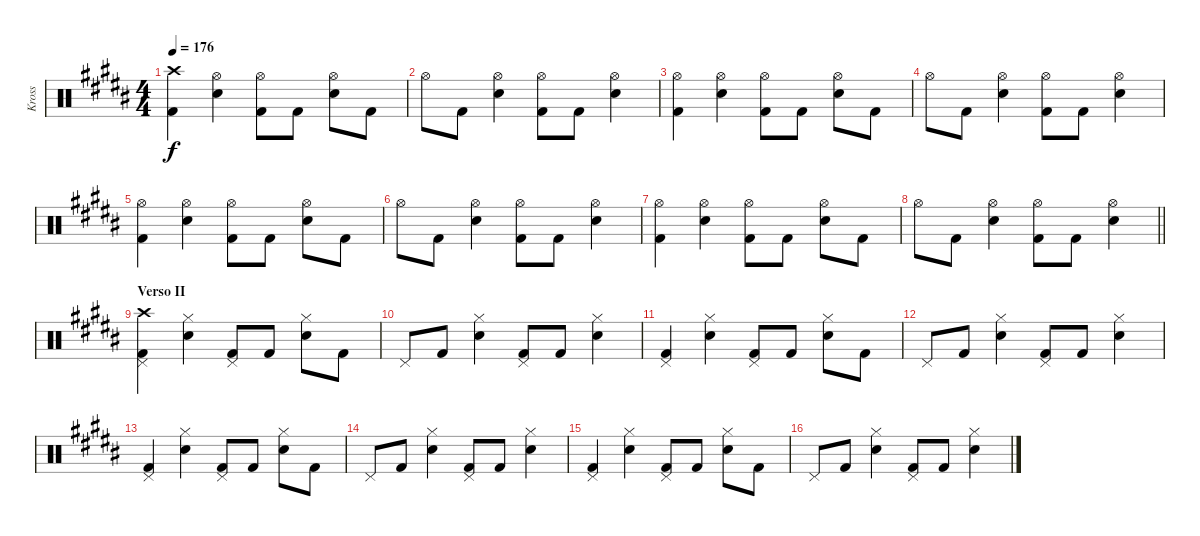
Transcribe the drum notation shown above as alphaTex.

\track ("Kross" "Kross") {instrument percussion}
\staff {score}
\articulation defaults
\ts (4 4)
\tempo 176
\clef neutral
\ks b
("Crash high (hit)" "Kick (hit) 2").4{dy f} ("Hi-Hat (open)" "Electric Snare (hit)").4 ("Hi-Hat (open)" "Kick (hit) 2").8 "Kick (hit) 2".8 ("Hi-Hat (open)" "Electric Snare (hit)").8 "Kick (hit) 2".8 |
"Hi-Hat (open)".8 "Kick (hit) 2".8 ("Hi-Hat (open)" "Electric Snare (hit)").4 ("Hi-Hat (open)" "Kick (hit) 2").8 "Kick (hit) 2".8 ("Hi-Hat (open)" "Electric Snare (hit)").4 |
("Hi-Hat (open)" "Kick (hit) 2").4 ("Hi-Hat (open)" "Electric Snare (hit)").4 ("Hi-Hat (open)" "Kick (hit) 2").8 "Kick (hit) 2".8 ("Hi-Hat (open)" "Electric Snare (hit)").8 "Kick (hit) 2".8 |
"Hi-Hat (open)".8 "Kick (hit) 2".8 ("Hi-Hat (open)" "Electric Snare (hit)").4 ("Hi-Hat (open)" "Kick (hit) 2").8 "Kick (hit) 2".8 ("Hi-Hat (open)" "Electric Snare (hit)").4 |
("Hi-Hat (open)" "Kick (hit) 2").4 ("Hi-Hat (open)" "Electric Snare (hit)").4 ("Hi-Hat (open)" "Kick (hit) 2").8 "Kick (hit) 2".8 ("Hi-Hat (open)" "Electric Snare (hit)").8 "Kick (hit) 2".8 |
"Hi-Hat (open)".8 "Kick (hit) 2".8 ("Hi-Hat (open)" "Electric Snare (hit)").4 ("Hi-Hat (open)" "Kick (hit) 2").8 "Kick (hit) 2".8 ("Hi-Hat (open)" "Electric Snare (hit)").4 |
("Hi-Hat (open)" "Kick (hit) 2").4 ("Hi-Hat (open)" "Electric Snare (hit)").4 ("Hi-Hat (open)" "Kick (hit) 2").8 "Kick (hit) 2".8 ("Hi-Hat (open)" "Electric Snare (hit)").8 "Kick (hit) 2".8 |
\barLineRight lightlight "Hi-Hat (open)".8 "Kick (hit) 2".8
("Hi-Hat (open)" "Electric Snare (hit)").4 ("Hi-Hat (open)" "Kick (hit) 2").8 "Kick (hit) 2".8 ("Hi-Hat (open)" "Electric Snare (hit)").4 |
\section ("" "Verso II")
("Crash high (hit)" "Pedal Hi-Hat (hit)" "Kick (hit) 2").4 ("Hi-Hat (closed)" "Electric Snare (hit)").4 ("Pedal Hi-Hat (hit)" "Kick (hit) 2").8 "Kick (hit) 2".8 ("Hi-Hat (closed)" "Electric Snare (hit)").8 "Kick (hit) 2".8 |
"Pedal Hi-Hat (hit)".8 "Kick (hit) 2".8 ("Hi-Hat (closed)" "Electric Snare (hit)").4 ("Pedal Hi-Hat (hit)" "Kick (hit) 2").8 "Kick (hit) 2".8 ("Hi-Hat (closed)" "Electric Snare (hit)").4 |
("Pedal Hi-Hat (hit)" "Kick (hit) 2").4 ("Hi-Hat (closed)" "Electric Snare (hit)").4 ("Pedal Hi-Hat (hit)" "Kick (hit) 2").8 "Kick (hit) 2".8 ("Hi-Hat (closed)" "Electric Snare (hit)").8 "Kick (hit) 2".8 |
"Pedal Hi-Hat (hit)".8 "Kick (hit) 2".8 ("Hi-Hat (closed)" "Electric Snare (hit)").4 ("Pedal Hi-Hat (hit)" "Kick (hit) 2").8 "Kick (hit) 2".8 ("Hi-Hat (closed)" "Electric Snare (hit)").4 |
("Pedal Hi-Hat (hit)" "Kick (hit) 2").4 ("Hi-Hat (closed)" "Electric Snare (hit)").4 ("Pedal Hi-Hat (hit)" "Kick (hit) 2").8 "Kick (hit) 2".8 ("Hi-Hat (closed)" "Electric Snare (hit)").8 "Kick (hit) 2".8 |
"Pedal Hi-Hat (hit)".8 "Kick (hit) 2".8 ("Hi-Hat (closed)" "Electric Snare (hit)").4 ("Pedal Hi-Hat (hit)" "Kick (hit) 2").8 "Kick (hit) 2".8 ("Hi-Hat (closed)" "Electric Snare (hit)").4 |
("Pedal Hi-Hat (hit)" "Kick (hit) 2").4 ("Hi-Hat (closed)" "Electric Snare (hit)").4 ("Pedal Hi-Hat (hit)" "Kick (hit) 2").8 "Kick (hit) 2".8 ("Hi-Hat (closed)" "Electric Snare (hit)").8 "Kick (hit) 2".8 |
"Pedal Hi-Hat (hit)".8 "Kick (hit) 2".8 ("Hi-Hat (closed)" "Electric Snare (hit)").4 ("Pedal Hi-Hat (hit)" "Kick (hit) 2").8 "Kick (hit) 2".8 ("Hi-Hat (closed)" "Electric Snare (hit)").4
